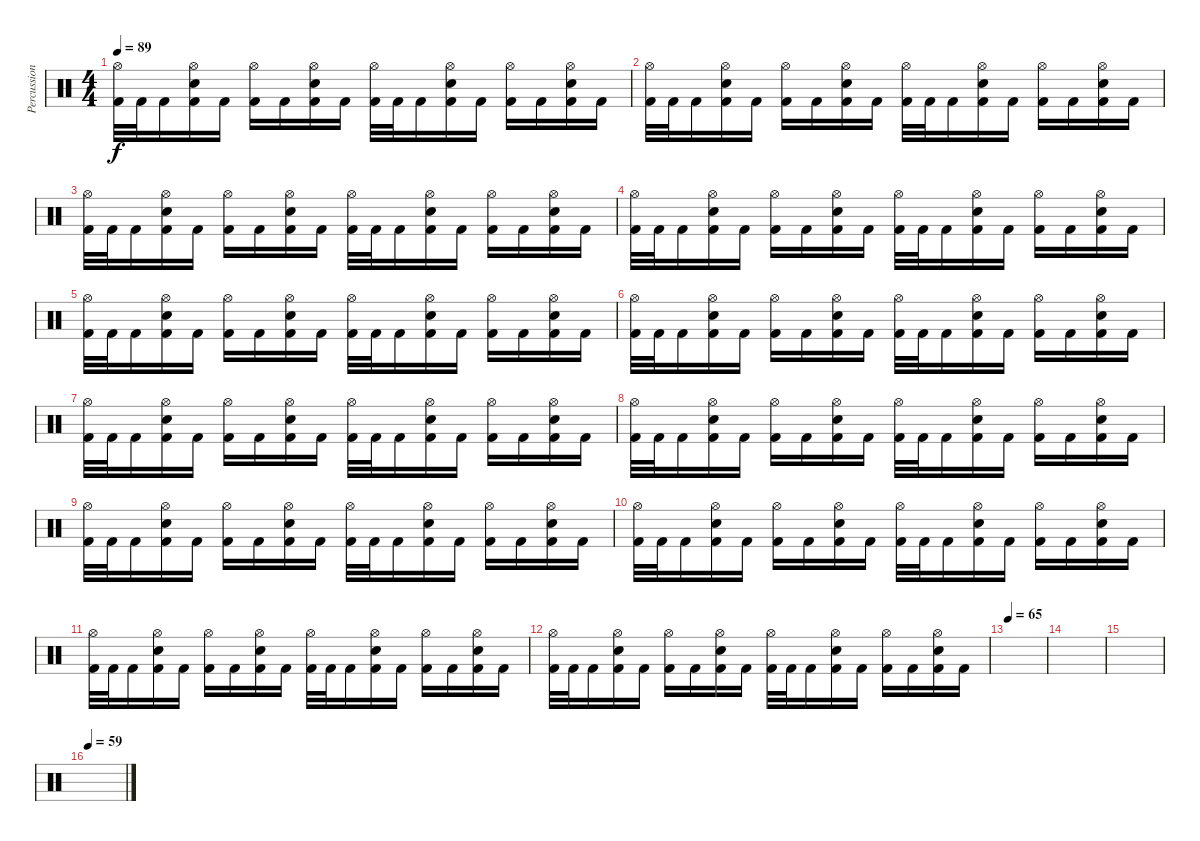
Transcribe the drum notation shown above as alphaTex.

\track ("Percussions" "Percussion") {instrument percussion}
\staff {score}
\articulation defaults
\ts (4 4)
\tempo 89
\clef neutral
\ks c
("Hi-Hat (open)" "Kick (hit) 2").32{dy f} "Kick (hit) 2".32 "Kick (hit) 2".16 ("Hi-Hat (open)" "Snare (hit) 2" "Kick (hit) 2").16 "Kick (hit) 2".16 ("Hi-Hat (open)" "Kick (hit) 2").16 "Kick (hit) 2".16 ("Hi-Hat (open)" "Snare (hit) 2" "Kick (hit) 2").16 "Kick (hit) 2".16 ("Hi-Hat (open)" "Kick (hit) 2").32 "Kick (hit) 2".32 "Kick (hit) 2".16 ("Hi-Hat (open)" "Snare (hit) 2" "Kick (hit) 2").16 "Kick (hit) 2".16 ("Hi-Hat (open)" "Kick (hit) 2").16 "Kick (hit) 2".16 ("Hi-Hat (open)" "Snare (hit) 2" "Kick (hit) 2").16 "Kick (hit) 2".16 |
("Hi-Hat (open)" "Kick (hit) 2").32 "Kick (hit) 2".32 "Kick (hit) 2".16 ("Hi-Hat (open)" "Snare (hit) 2" "Kick (hit) 2").16 "Kick (hit) 2".16 ("Hi-Hat (open)" "Kick (hit) 2").16 "Kick (hit) 2".16 ("Hi-Hat (open)" "Snare (hit) 2" "Kick (hit) 2").16 "Kick (hit) 2".16 ("Hi-Hat (open)" "Kick (hit) 2").32 "Kick (hit) 2".32 "Kick (hit) 2".16 ("Hi-Hat (open)" "Snare (hit) 2" "Kick (hit) 2").16 "Kick (hit) 2".16 ("Hi-Hat (open)" "Kick (hit) 2").16 "Kick (hit) 2".16 ("Hi-Hat (open)" "Snare (hit) 2" "Kick (hit) 2").16 "Kick (hit) 2".16 |
("Hi-Hat (open)" "Kick (hit) 2").32 "Kick (hit) 2".32 "Kick (hit) 2".16 ("Hi-Hat (open)" "Snare (hit) 2" "Kick (hit) 2").16 "Kick (hit) 2".16 ("Hi-Hat (open)" "Kick (hit) 2").16 "Kick (hit) 2".16 ("Hi-Hat (open)" "Snare (hit) 2" "Kick (hit) 2").16 "Kick (hit) 2".16 ("Hi-Hat (open)" "Kick (hit) 2").32 "Kick (hit) 2".32 "Kick (hit) 2".16 ("Hi-Hat (open)" "Snare (hit) 2" "Kick (hit) 2").16 "Kick (hit) 2".16 ("Hi-Hat (open)" "Kick (hit) 2").16 "Kick (hit) 2".16 ("Hi-Hat (open)" "Snare (hit) 2" "Kick (hit) 2").16 "Kick (hit) 2".16 |
("Hi-Hat (open)" "Kick (hit) 2").32 "Kick (hit) 2".32 "Kick (hit) 2".16 ("Hi-Hat (open)" "Snare (hit) 2" "Kick (hit) 2").16 "Kick (hit) 2".16 ("Hi-Hat (open)" "Kick (hit) 2").16 "Kick (hit) 2".16 ("Hi-Hat (open)" "Snare (hit) 2" "Kick (hit) 2").16 "Kick (hit) 2".16 ("Hi-Hat (open)" "Kick (hit) 2").32 "Kick (hit) 2".32 "Kick (hit) 2".16 ("Hi-Hat (open)" "Snare (hit) 2" "Kick (hit) 2").16 "Kick (hit) 2".16 ("Hi-Hat (open)" "Kick (hit) 2").16 "Kick (hit) 2".16 ("Hi-Hat (open)" "Snare (hit) 2" "Kick (hit) 2").16 "Kick (hit) 2".16 |
("Hi-Hat (open)" "Kick (hit) 2").32 "Kick (hit) 2".32 "Kick (hit) 2".16 ("Hi-Hat (open)" "Snare (hit) 2" "Kick (hit) 2").16 "Kick (hit) 2".16 ("Hi-Hat (open)" "Kick (hit) 2").16 "Kick (hit) 2".16 ("Hi-Hat (open)" "Snare (hit) 2" "Kick (hit) 2").16 "Kick (hit) 2".16 ("Hi-Hat (open)" "Kick (hit) 2").32 "Kick (hit) 2".32 "Kick (hit) 2".16 ("Hi-Hat (open)" "Snare (hit) 2" "Kick (hit) 2").16 "Kick (hit) 2".16 ("Hi-Hat (open)" "Kick (hit) 2").16 "Kick (hit) 2".16 ("Hi-Hat (open)" "Snare (hit) 2" "Kick (hit) 2").16 "Kick (hit) 2".16 |
("Hi-Hat (open)" "Kick (hit) 2").32 "Kick (hit) 2".32 "Kick (hit) 2".16 ("Hi-Hat (open)" "Snare (hit) 2" "Kick (hit) 2").16 "Kick (hit) 2".16 ("Hi-Hat (open)" "Kick (hit) 2").16 "Kick (hit) 2".16 ("Hi-Hat (open)" "Snare (hit) 2" "Kick (hit) 2").16 "Kick (hit) 2".16 ("Hi-Hat (open)" "Kick (hit) 2").32 "Kick (hit) 2".32 "Kick (hit) 2".16 ("Hi-Hat (open)" "Snare (hit) 2" "Kick (hit) 2").16 "Kick (hit) 2".16 ("Hi-Hat (open)" "Kick (hit) 2").16 "Kick (hit) 2".16 ("Hi-Hat (open)" "Snare (hit) 2" "Kick (hit) 2").16 "Kick (hit) 2".16 |
("Hi-Hat (open)" "Kick (hit) 2").32 "Kick (hit) 2".32 "Kick (hit) 2".16 ("Hi-Hat (open)" "Snare (hit) 2" "Kick (hit) 2").16 "Kick (hit) 2".16 ("Hi-Hat (open)" "Kick (hit) 2").16 "Kick (hit) 2".16 ("Hi-Hat (open)" "Snare (hit) 2" "Kick (hit) 2").16 "Kick (hit) 2".16 ("Hi-Hat (open)" "Kick (hit) 2").32 "Kick (hit) 2".32 "Kick (hit) 2".16 ("Hi-Hat (open)" "Snare (hit) 2" "Kick (hit) 2").16 "Kick (hit) 2".16 ("Hi-Hat (open)" "Kick (hit) 2").16 "Kick (hit) 2".16 ("Hi-Hat (open)" "Snare (hit) 2" "Kick (hit) 2").16 "Kick (hit) 2".16 |
("Hi-Hat (open)" "Kick (hit) 2").32 "Kick (hit) 2".32 "Kick (hit) 2".16 ("Hi-Hat (open)" "Snare (hit) 2" "Kick (hit) 2").16 "Kick (hit) 2".16 ("Hi-Hat (open)" "Kick (hit) 2").16 "Kick (hit) 2".16 ("Hi-Hat (open)" "Snare (hit) 2" "Kick (hit) 2").16 "Kick (hit) 2".16 ("Hi-Hat (open)" "Kick (hit) 2").32 "Kick (hit) 2".32 "Kick (hit) 2".16 ("Hi-Hat (open)" "Snare (hit) 2" "Kick (hit) 2").16 "Kick (hit) 2".16 ("Hi-Hat (open)" "Kick (hit) 2").16 "Kick (hit) 2".16 ("Hi-Hat (open)" "Snare (hit) 2" "Kick (hit) 2").16 "Kick (hit) 2".16 |
("Hi-Hat (open)" "Kick (hit) 2").32 "Kick (hit) 2".32 "Kick (hit) 2".16 ("Hi-Hat (open)" "Snare (hit) 2" "Kick (hit) 2").16 "Kick (hit) 2".16 ("Hi-Hat (open)" "Kick (hit) 2").16 "Kick (hit) 2".16 ("Hi-Hat (open)" "Snare (hit) 2" "Kick (hit) 2").16 "Kick (hit) 2".16 ("Hi-Hat (open)" "Kick (hit) 2").32 "Kick (hit) 2".32 "Kick (hit) 2".16 ("Hi-Hat (open)" "Snare (hit) 2" "Kick (hit) 2").16 "Kick (hit) 2".16 ("Hi-Hat (open)" "Kick (hit) 2").16 "Kick (hit) 2".16 ("Hi-Hat (open)" "Snare (hit) 2" "Kick (hit) 2").16 "Kick (hit) 2".16 |
("Hi-Hat (open)" "Kick (hit) 2").32 "Kick (hit) 2".32 "Kick (hit) 2".16 ("Hi-Hat (open)" "Snare (hit) 2" "Kick (hit) 2").16 "Kick (hit) 2".16 ("Hi-Hat (open)" "Kick (hit) 2").16 "Kick (hit) 2".16 ("Hi-Hat (open)" "Snare (hit) 2" "Kick (hit) 2").16 "Kick (hit) 2".16 ("Hi-Hat (open)" "Kick (hit) 2").32 "Kick (hit) 2".32 "Kick (hit) 2".16 ("Hi-Hat (open)" "Snare (hit) 2" "Kick (hit) 2").16 "Kick (hit) 2".16 ("Hi-Hat (open)" "Kick (hit) 2").16 "Kick (hit) 2".16 ("Hi-Hat (open)" "Snare (hit) 2" "Kick (hit) 2").16 "Kick (hit) 2".16 |
("Hi-Hat (open)" "Kick (hit) 2").32 "Kick (hit) 2".32 "Kick (hit) 2".16 ("Hi-Hat (open)" "Snare (hit) 2" "Kick (hit) 2").16 "Kick (hit) 2".16 ("Hi-Hat (open)" "Kick (hit) 2").16 "Kick (hit) 2".16 ("Hi-Hat (open)" "Snare (hit) 2" "Kick (hit) 2").16 "Kick (hit) 2".16 ("Hi-Hat (open)" "Kick (hit) 2").32 "Kick (hit) 2".32 "Kick (hit) 2".16 ("Hi-Hat (open)" "Snare (hit) 2" "Kick (hit) 2").16 "Kick (hit) 2".16 ("Hi-Hat (open)" "Kick (hit) 2").16 "Kick (hit) 2".16 ("Hi-Hat (open)" "Snare (hit) 2" "Kick (hit) 2").16 "Kick (hit) 2".16 |
("Hi-Hat (open)" "Kick (hit) 2").32 "Kick (hit) 2".32 "Kick (hit) 2".16 ("Hi-Hat (open)" "Snare (hit) 2" "Kick (hit) 2").16 "Kick (hit) 2".16 ("Hi-Hat (open)" "Kick (hit) 2").16 "Kick (hit) 2".16 ("Hi-Hat (open)" "Snare (hit) 2" "Kick (hit) 2").16 "Kick (hit) 2".16 ("Hi-Hat (open)" "Kick (hit) 2").32 "Kick (hit) 2".32 "Kick (hit) 2".16 ("Hi-Hat (open)" "Snare (hit) 2" "Kick (hit) 2").16 "Kick (hit) 2".16 ("Hi-Hat (open)" "Kick (hit) 2").16 "Kick (hit) 2".16 ("Hi-Hat (open)" "Snare (hit) 2" "Kick (hit) 2").16 "Kick (hit) 2".16 |
\tempo 65
|
|
|
\tempo 59
